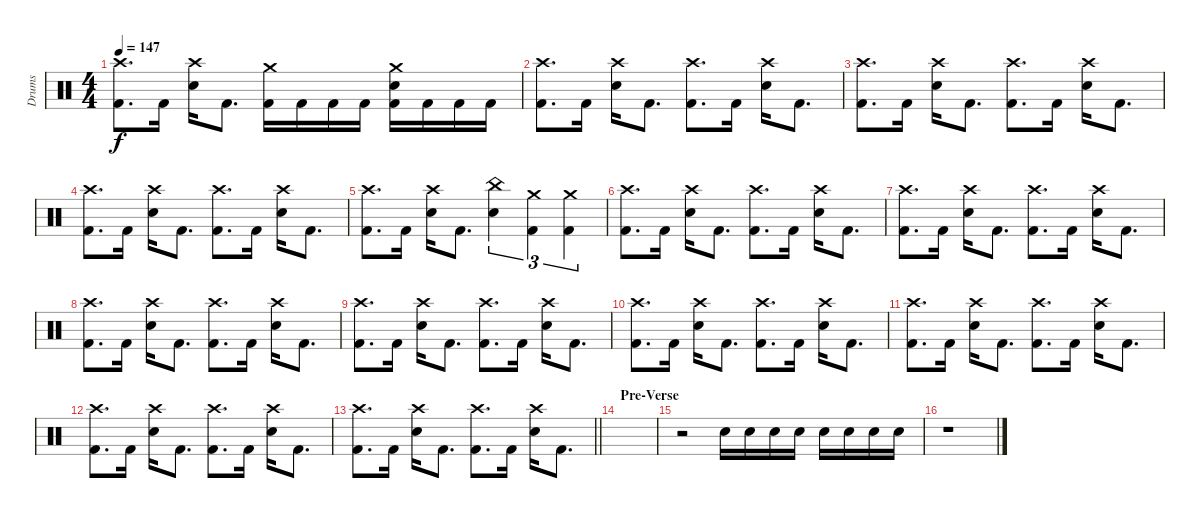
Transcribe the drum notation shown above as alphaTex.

\track ("Drums" "Drums") {instrument percussion}
\staff {score}
\articulation defaults
\ts (4 4)
\tempo 147
\clef neutral
\ks c
("Crash high (hit)" "Kick (hit) 2").8{d dy f} "Kick (hit) 2".16 ("Crash high (hit)" "Electric Snare (hit)").16 "Kick (hit) 2".8{d} ("Crash medium (hit)" "Kick (hit) 2").16 "Kick (hit) 2".16 "Kick (hit) 2".16 "Kick (hit) 2".16 ("Crash medium (hit)" "Electric Snare (hit)" "Kick (hit) 2").16 "Kick (hit) 2".16 "Kick (hit) 2".16 "Kick (hit) 2".16 |
("Crash high (hit)" "Kick (hit) 2").8{d} "Kick (hit) 2".16 ("Crash high (hit)" "Electric Snare (hit)").16 "Kick (hit) 2".8{d} ("Crash high (hit)" "Kick (hit) 2").8{d} "Kick (hit) 2".16 ("Crash high (hit)" "Electric Snare (hit)").16 "Kick (hit) 2".8{d} |
("Crash high (hit)" "Kick (hit) 2").8{d} "Kick (hit) 2".16 ("Crash high (hit)" "Electric Snare (hit)").16 "Kick (hit) 2".8{d} ("Crash high (hit)" "Kick (hit) 2").8{d} "Kick (hit) 2".16 ("Crash high (hit)" "Electric Snare (hit)").16 "Kick (hit) 2".8{d} |
("Crash high (hit)" "Kick (hit) 2").8{d} "Kick (hit) 2".16 ("Crash high (hit)" "Electric Snare (hit)").16 "Kick (hit) 2".8{d} ("Crash high (hit)" "Kick (hit) 2").8{d} "Kick (hit) 2".16 ("Crash high (hit)" "Electric Snare (hit)").16 "Kick (hit) 2".8{d} |
("Crash high (hit)" "Kick (hit) 2").8{d} "Kick (hit) 2".16 ("Crash high (hit)" "Electric Snare (hit)").16 "Kick (hit) 2".8{d} ("China (hit)" "Electric Snare (hit)").4{tu (3 2)} ("Crash medium (hit)" "Kick (hit) 2").4{tu (3 2)} ("Crash medium (hit)" "Kick (hit) 2").4{tu (3 2)} |
("Crash high (hit)" "Kick (hit) 2").8{d} "Kick (hit) 2".16 ("Crash high (hit)" "Electric Snare (hit)").16 "Kick (hit) 2".8{d} ("Crash high (hit)" "Kick (hit) 2").8{d} "Kick (hit) 2".16 ("Crash high (hit)" "Electric Snare (hit)").16 "Kick (hit) 2".8{d} |
("Crash high (hit)" "Kick (hit) 2").8{d} "Kick (hit) 2".16 ("Crash high (hit)" "Electric Snare (hit)").16 "Kick (hit) 2".8{d} ("Crash high (hit)" "Kick (hit) 2").8{d} "Kick (hit) 2".16 ("Crash high (hit)" "Electric Snare (hit)").16 "Kick (hit) 2".8{d} |
("Crash high (hit)" "Kick (hit) 2").8{d} "Kick (hit) 2".16 ("Crash high (hit)" "Electric Snare (hit)").16 "Kick (hit) 2".8{d} ("Crash high (hit)" "Kick (hit) 2").8{d} "Kick (hit) 2".16 ("Crash high (hit)" "Electric Snare (hit)").16 "Kick (hit) 2".8{d} |
("Crash high (hit)" "Kick (hit) 2").8{d} "Kick (hit) 2".16 ("Crash high (hit)" "Electric Snare (hit)").16 "Kick (hit) 2".8{d} ("Crash high (hit)" "Kick (hit) 2").8{d} "Kick (hit) 2".16 ("Crash high (hit)" "Electric Snare (hit)").16 "Kick (hit) 2".8{d} |
("Crash high (hit)" "Kick (hit) 2").8{d} "Kick (hit) 2".16 ("Crash high (hit)" "Electric Snare (hit)").16 "Kick (hit) 2".8{d} ("Crash high (hit)" "Kick (hit) 2").8{d} "Kick (hit) 2".16 ("Crash high (hit)" "Electric Snare (hit)").16 "Kick (hit) 2".8{d} |
("Crash high (hit)" "Kick (hit) 2").8{d} "Kick (hit) 2".16 ("Crash high (hit)" "Electric Snare (hit)").16 "Kick (hit) 2".8{d} ("Crash high (hit)" "Kick (hit) 2").8{d} "Kick (hit) 2".16 ("Crash high (hit)" "Electric Snare (hit)").16 "Kick (hit) 2".8{d} |
("Crash high (hit)" "Kick (hit) 2").8{d} "Kick (hit) 2".16 ("Crash high (hit)" "Electric Snare (hit)").16 "Kick (hit) 2".8{d} ("Crash high (hit)" "Kick (hit) 2").8{d} "Kick (hit) 2".16 ("Crash high (hit)" "Electric Snare (hit)").16 "Kick (hit) 2".8{d} |
\barLineRight lightlight
("Crash high (hit)" "Kick (hit) 2").8{d} "Kick (hit) 2".16 ("Crash high (hit)" "Electric Snare (hit)").16 "Kick (hit) 2".8{d} ("Crash high (hit)" "Kick (hit) 2").8{d} "Kick (hit) 2".16 ("Crash high (hit)" "Electric Snare (hit)").16 "Kick (hit) 2".8{d} |
\section ("" "Pre-Verse")
|
r.2 "Electric Snare (hit)".16 "Electric Snare (hit)".16 "Electric Snare (hit)".16 "Electric Snare (hit)".16 "Electric Snare (hit)".16 "Electric Snare (hit)".16 "Electric Snare (hit)".16 "Electric Snare (hit)".16 |
r.1{volume 0}
